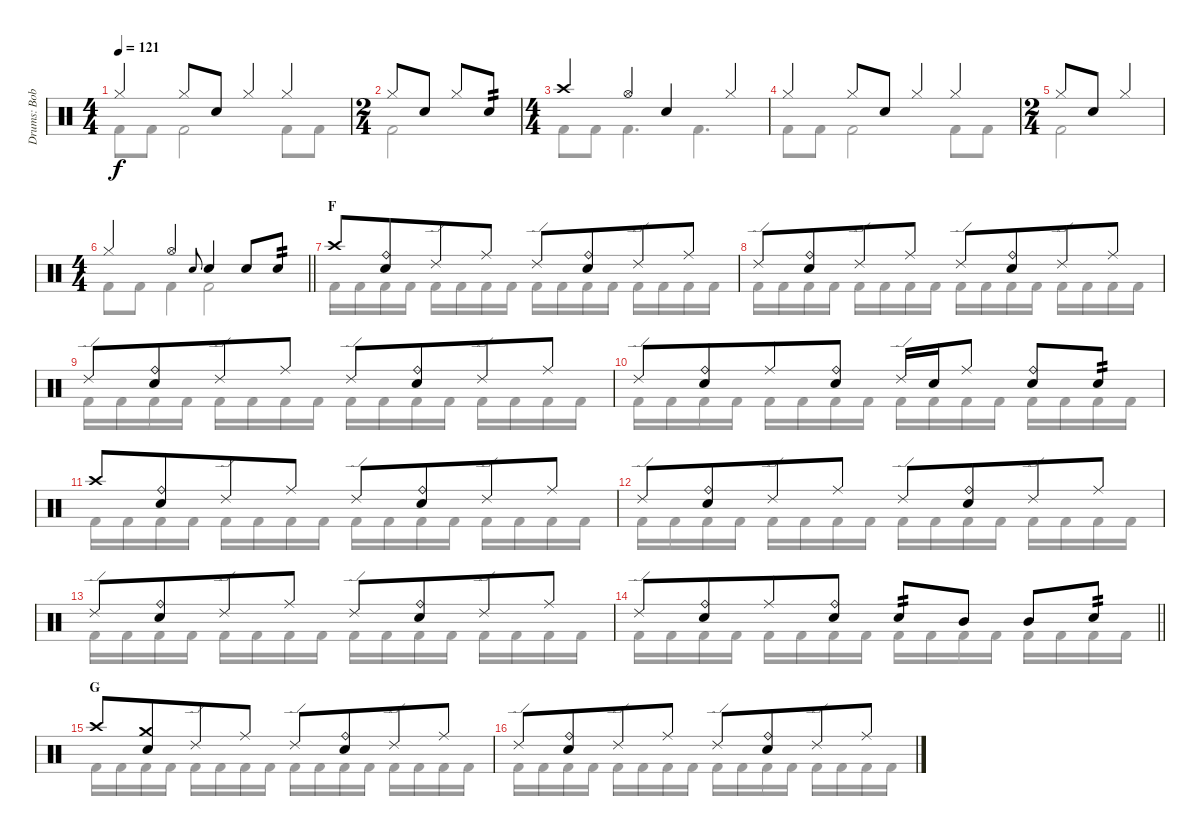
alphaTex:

\track ("Drums: Bobby" "Drums: Bob") {instrument percussion}
\staff {score}
\articulation defaults
\voice
\ts (4 4)
\tempo 121
\clef neutral
\ks c "Hi-Hat (closed)".4{dy f} "Hi-Hat (closed)".8 "Snare (hit) 2".8 "Hi-Hat (closed)".4 "Hi-Hat (closed)".4
|
\ts (2 4)
"Hi-Hat (closed)".8 "Snare (hit) 2".8 "Hi-Hat (closed)".8 "Snare (hit) 2".8{tp 2} |
\ts (4 4)
"Crash high (hit)".4 "Hi-Hat (open)".4 "Snare (hit) 2".4 "Hi-Hat (closed)".4 |
"Hi-Hat (closed)".4 "Hi-Hat (closed)".8 "Snare (hit) 2".8 "Hi-Hat (closed)".4 "Hi-Hat (closed)".4 |
\ts (2 4)
"Hi-Hat (closed)".8 "Snare (hit) 2".8 "Hi-Hat (closed)".4 |
\ts (4 4)
\barLineRight lightlight "Hi-Hat (closed)".4 "Hi-Hat (open)".4 "Electric Snare (hit)".8{gr onbeat} "Snare (hit) 2".4 "Snare (hit) 2".8 "Snare (hit) 2".8{tp 2}
|
\section ("" "F")
"Crash high (hit)".8 ("Ride (bell)" "Snare (hit) 2").8{beam merge} "Ride (edge) 2".8 "Ride (middle)".8 "Ride (edge) 2".8 ("Ride (bell)" "Snare (hit) 2").8{beam merge} "Ride (edge) 2".8 "Ride (middle)".8 |
"Ride (edge) 2".8 ("Ride (bell)" "Snare (hit) 2").8{beam merge} "Ride (edge) 2".8 "Ride (middle)".8 "Ride (edge) 2".8 ("Ride (bell)" "Snare (hit) 2").8{beam merge} "Ride (edge) 2".8 "Ride (middle)".8 |
"Ride (edge) 2".8 ("Ride (bell)" "Snare (hit) 2").8{beam merge} "Ride (edge) 2".8 "Ride (middle)".8 "Ride (edge) 2".8 ("Ride (bell)" "Snare (hit) 2").8{beam merge} "Ride (edge) 2".8 "Ride (middle)".8 |
"Ride (edge) 2".8 ("Ride (bell)" "Snare (hit) 2").8{beam merge} "Ride (middle)".8 ("Ride (bell)" "Snare (hit) 2").8 "Ride (edge) 2".16 "Snare (hit) 2".16 "Ride (middle)".8 ("Ride (bell)" "Snare (hit) 2").8 "Electric Snare (hit)".8{tp 2} |
"Crash high (hit)".8 ("Ride (bell)" "Snare (hit) 2").8{beam merge} "Ride (edge) 2".8 "Ride (middle)".8 "Ride (edge) 2".8 ("Ride (bell)" "Snare (hit) 2").8{beam merge} "Ride (edge) 2".8 "Ride (middle)".8 |
"Ride (edge) 2".8 ("Ride (bell)" "Snare (hit) 2").8{beam merge} "Ride (edge) 2".8 "Ride (middle)".8 "Ride (edge) 2".8 ("Ride (bell)" "Snare (hit) 2").8{beam merge} "Ride (edge) 2".8 "Ride (middle)".8 |
"Ride (edge) 2".8 ("Ride (bell)" "Snare (hit) 2").8{beam merge} "Ride (edge) 2".8 "Ride (middle)".8 "Ride (edge) 2".8 ("Ride (bell)" "Snare (hit) 2").8{beam merge} "Ride (edge) 2".8 "Ride (middle)".8 |
\barLineRight lightlight "Ride (edge) 2".8
("Ride (bell)" "Snare (hit) 2").8{beam merge} "Ride (middle)".8 ("Ride (bell)" "Snare (hit) 2").8 "Snare (hit) 2".8{tp 2} "Mid Tom (hit)".8 "Mid Tom (hit)".8 "Electric Snare (hit)".8{tp 2} |
\section ("" "G")
"Crash high (hit)".8 ("Crash medium (hit)" "Snare (hit) 2").8{beam merge} "Ride (edge) 2".8 "Ride (middle)".8 "Ride (edge) 2".8 ("Ride (bell)" "Snare (hit) 2").8{beam merge} "Ride (edge) 2".8 "Ride (middle)".8 |
"Ride (edge) 2".8 ("Ride (bell)" "Snare (hit) 2").8{beam merge} "Ride (edge) 2".8 "Ride (middle)".8 "Ride (edge) 2".8 ("Ride (bell)" "Snare (hit) 2").8{beam merge} "Ride (edge) 2".8 "Ride (middle)".8
\voice
\clef neutral
\ottava regular
\simile none
\ks c "Kick (hit) 2".8{dy f} "Kick (hit) 2".8 "Kick (hit) 2".2 "Kick (hit) 2".8 "Kick (hit) 2".8
|
"Kick (hit) 2".2 |
"Kick (hit) 2".8 "Kick (hit) 2".8 "Kick (hit) 2".4{d} "Kick (hit) 2".4{d} |
"Kick (hit) 2".8 "Kick (hit) 2".8 "Kick (hit) 2".2 "Kick (hit) 2".8 "Kick (hit) 2".8 |
"Kick (hit) 2".2 |
\barLineRight lightlight "Kick (hit) 2".8 "Kick (hit) 2".8 "Kick (hit) 2".4 "Kick (hit) 2".2
|
"Kick (hit) 2".16 "Kick (hit) 2".16 "Kick (hit) 2".16 "Kick (hit) 2".16 "Kick (hit) 2".16 "Kick (hit) 2".16 "Kick (hit) 2".16 "Kick (hit) 2".16 "Kick (hit) 2".16 "Kick (hit) 2".16 "Kick (hit) 2".16 "Kick (hit) 2".16 "Kick (hit) 2".16 "Kick (hit) 2".16 "Kick (hit) 2".16 "Kick (hit) 2".16 |
"Kick (hit) 2".16 "Kick (hit) 2".16 "Kick (hit) 2".16 "Kick (hit) 2".16 "Kick (hit) 2".16 "Kick (hit) 2".16 "Kick (hit) 2".16 "Kick (hit) 2".16 "Kick (hit) 2".16 "Kick (hit) 2".16 "Kick (hit) 2".16 "Kick (hit) 2".16 "Kick (hit) 2".16 "Kick (hit) 2".16 "Kick (hit) 2".16 "Kick (hit) 2".16 |
"Kick (hit) 2".16 "Kick (hit) 2".16 "Kick (hit) 2".16 "Kick (hit) 2".16 "Kick (hit) 2".16 "Kick (hit) 2".16 "Kick (hit) 2".16 "Kick (hit) 2".16 "Kick (hit) 2".16 "Kick (hit) 2".16 "Kick (hit) 2".16 "Kick (hit) 2".16 "Kick (hit) 2".16 "Kick (hit) 2".16 "Kick (hit) 2".16 "Kick (hit) 2".16 |
"Kick (hit) 2".16 "Kick (hit) 2".16 "Kick (hit) 2".16 "Kick (hit) 2".16 "Kick (hit) 2".16 "Kick (hit) 2".16 "Kick (hit) 2".16 "Kick (hit) 2".16 "Kick (hit) 2".16 "Kick (hit) 2".16 "Kick (hit) 2".16 "Kick (hit) 2".16 "Kick (hit) 2".16 "Kick (hit) 2".16 "Kick (hit) 2".16 "Kick (hit) 2".16 |
"Kick (hit) 2".16 "Kick (hit) 2".16 "Kick (hit) 2".16 "Kick (hit) 2".16 "Kick (hit) 2".16 "Kick (hit) 2".16 "Kick (hit) 2".16 "Kick (hit) 2".16 "Kick (hit) 2".16 "Kick (hit) 2".16 "Kick (hit) 2".16 "Kick (hit) 2".16 "Kick (hit) 2".16 "Kick (hit) 2".16 "Kick (hit) 2".16 "Kick (hit) 2".16 |
"Kick (hit) 2".16 "Kick (hit) 2".16 "Kick (hit) 2".16 "Kick (hit) 2".16 "Kick (hit) 2".16 "Kick (hit) 2".16 "Kick (hit) 2".16 "Kick (hit) 2".16 "Kick (hit) 2".16 "Kick (hit) 2".16 "Kick (hit) 2".16 "Kick (hit) 2".16 "Kick (hit) 2".16 "Kick (hit) 2".16 "Kick (hit) 2".16 "Kick (hit) 2".16 |
"Kick (hit) 2".16 "Kick (hit) 2".16 "Kick (hit) 2".16 "Kick (hit) 2".16 "Kick (hit) 2".16 "Kick (hit) 2".16 "Kick (hit) 2".16 "Kick (hit) 2".16 "Kick (hit) 2".16 "Kick (hit) 2".16 "Kick (hit) 2".16 "Kick (hit) 2".16 "Kick (hit) 2".16 "Kick (hit) 2".16 "Kick (hit) 2".16 "Kick (hit) 2".16 |
\barLineRight lightlight "Kick (hit) 2".16 "Kick (hit) 2".16 "Kick (hit) 2".16 "Kick (hit) 2".16 "Kick (hit) 2".16 "Kick (hit) 2".16 "Kick (hit) 2".16 "Kick (hit) 2".16 "Kick (hit) 2".16 "Kick (hit) 2".16 "Kick (hit) 2".16 "Kick (hit) 2".16 "Kick (hit) 2".16 "Kick (hit) 2".16 "Kick (hit) 2".16 "Kick (hit) 2".16
|
"Kick (hit) 2".16 "Kick (hit) 2".16 "Kick (hit) 2".16 "Kick (hit) 2".16 "Kick (hit) 2".16 "Kick (hit) 2".16 "Kick (hit) 2".16 "Kick (hit) 2".16 "Kick (hit) 2".16 "Kick (hit) 2".16 "Kick (hit) 2".16 "Kick (hit) 2".16 "Kick (hit) 2".16 "Kick (hit) 2".16 "Kick (hit) 2".16 "Kick (hit) 2".16 |
"Kick (hit) 2".16 "Kick (hit) 2".16 "Kick (hit) 2".16 "Kick (hit) 2".16 "Kick (hit) 2".16 "Kick (hit) 2".16 "Kick (hit) 2".16 "Kick (hit) 2".16 "Kick (hit) 2".16 "Kick (hit) 2".16 "Kick (hit) 2".16 "Kick (hit) 2".16 "Kick (hit) 2".16 "Kick (hit) 2".16 "Kick (hit) 2".16 "Kick (hit) 2".16
